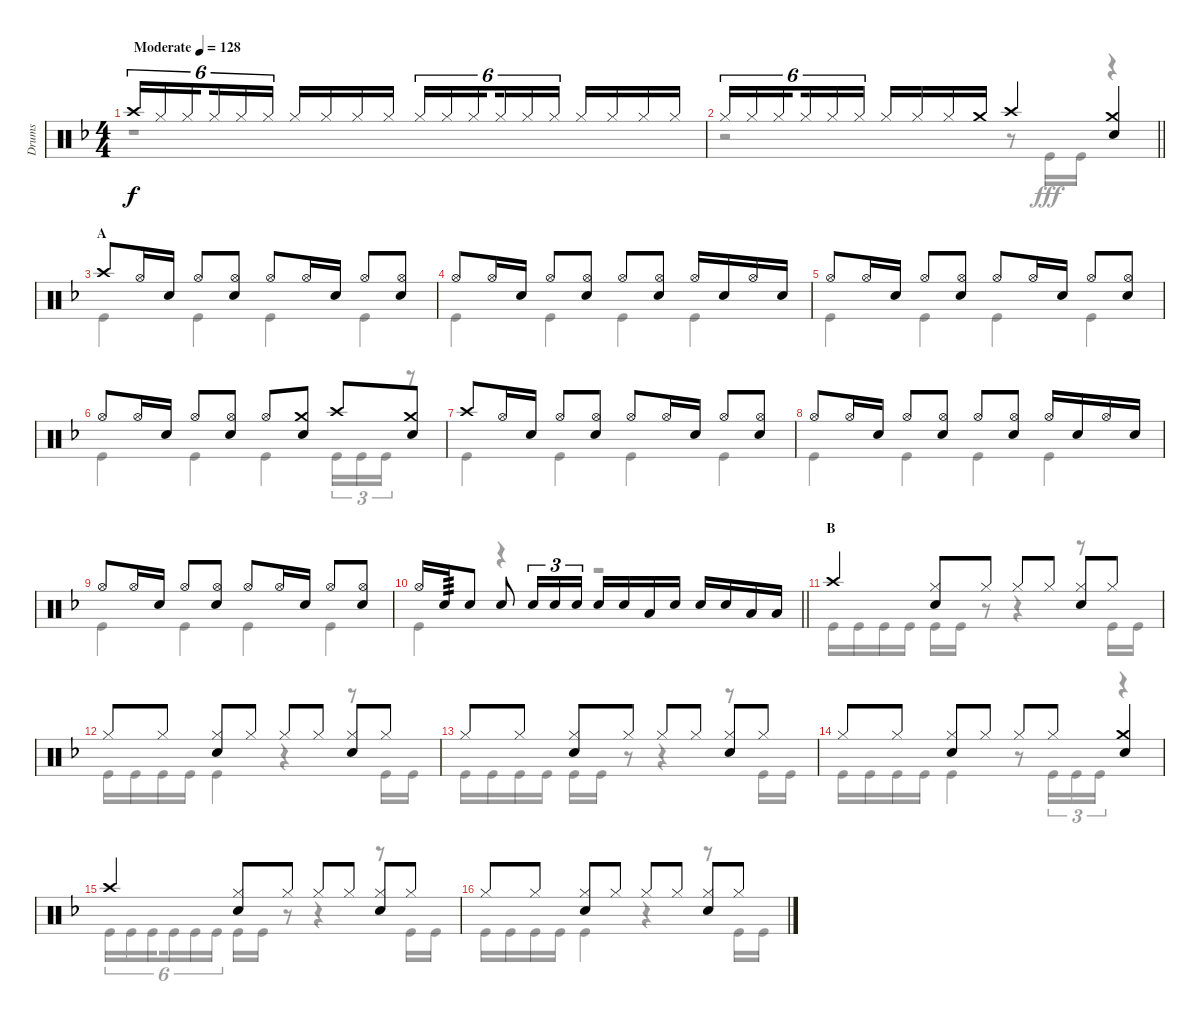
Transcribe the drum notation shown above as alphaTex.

\track ("Drums" "Drums") {instrument percussion}
\staff {score}
\articulation defaults
\voice
\ts (4 4)
\tempo (128 "Moderate")
\clef neutral
\ks f "Crash high (hit)".16{tu (6 4) dy f} "Hi-Hat (closed)".16{tu (6 4)} "Hi-Hat (closed)".16{tu (6 4) beam splitsecondary} "Hi-Hat (closed)".16{tu (6 4)} "Hi-Hat (closed)".16{tu (6 4)} "Hi-Hat (closed)".16{tu (6 4)} "Hi-Hat (closed)".16 "Hi-Hat (closed)".16 "Hi-Hat (closed)".16 "Hi-Hat (closed)".16 "Hi-Hat (closed)".16{tu (6 4)} "Hi-Hat (closed)".16{tu (6 4)} "Hi-Hat (closed)".16{tu (6 4) beam splitsecondary} "Hi-Hat (closed)".16{tu (6 4)} "Hi-Hat (closed)".16{tu (6 4)} "Hi-Hat (closed)".16{tu (6 4)} "Hi-Hat (closed)".16 "Hi-Hat (closed)".16 "Hi-Hat (closed)".16 "Hi-Hat (closed)".16
|
\barLineRight lightlight "Hi-Hat (closed)".16{tu (6 4)} "Hi-Hat (closed)".16{tu (6 4)} "Hi-Hat (closed)".16{tu (6 4) beam splitsecondary} "Hi-Hat (closed)".16{tu (6 4)} "Hi-Hat (closed)".16{tu (6 4)} "Hi-Hat (closed)".16{tu (6 4)} "Hi-Hat (closed)".16 "Hi-Hat (closed)".16 "Hi-Hat (closed)".16 "Crash medium (hit)".16 "Crash high (hit)".4
("Crash medium (hit)" "Snare (hit) 2").4 |
\section ("" "A")
"Crash high (hit)".8 "Hi-Hat (open)".16 "Snare (hit) 2".16 "Hi-Hat (open)".8 ("Hi-Hat (open)" "Snare (hit) 2").8 "Hi-Hat (open)".8 "Hi-Hat (open)".16 "Snare (hit) 2".16 "Hi-Hat (open)".8 ("Hi-Hat (open)" "Snare (hit) 2").8 |
"Hi-Hat (open)".8 "Hi-Hat (open)".16 "Snare (hit) 2".16 "Hi-Hat (open)".8 ("Hi-Hat (open)" "Snare (hit) 2").8 "Hi-Hat (open)".8 ("Hi-Hat (open)" "Snare (hit) 2").8 "Hi-Hat (open)".16 "Snare (hit) 2".16 "Hi-Hat (open)".16 "Snare (hit) 2".16 |
"Hi-Hat (open)".8 "Hi-Hat (open)".16 "Snare (hit) 2".16 "Hi-Hat (open)".8 ("Hi-Hat (open)" "Snare (hit) 2").8 "Hi-Hat (open)".8 "Hi-Hat (open)".16 "Snare (hit) 2".16 "Hi-Hat (open)".8 ("Hi-Hat (open)" "Snare (hit) 2").8 |
"Hi-Hat (open)".8 "Hi-Hat (open)".16 "Snare (hit) 2".16 "Hi-Hat (open)".8 ("Hi-Hat (open)" "Snare (hit) 2").8 "Hi-Hat (open)".8 ("Crash medium (hit)" "Snare (hit) 2").8 "Crash high (hit)".8 ("Crash medium (hit)" "Snare (hit) 2").8 |
"Crash high (hit)".8 "Hi-Hat (open)".16 "Snare (hit) 2".16 "Hi-Hat (open)".8 ("Hi-Hat (open)" "Snare (hit) 2").8 "Hi-Hat (open)".8 "Hi-Hat (open)".16 "Snare (hit) 2".16 "Hi-Hat (open)".8 ("Hi-Hat (open)" "Snare (hit) 2").8 |
"Hi-Hat (open)".8 "Hi-Hat (open)".16 "Snare (hit) 2".16 "Hi-Hat (open)".8 ("Hi-Hat (open)" "Snare (hit) 2").8 "Hi-Hat (open)".8 ("Hi-Hat (open)" "Snare (hit) 2").8 "Hi-Hat (open)".16 "Snare (hit) 2".16 "Hi-Hat (open)".16 "Snare (hit) 2".16 |
"Hi-Hat (open)".8 "Hi-Hat (open)".16 "Snare (hit) 2".16 "Hi-Hat (open)".8 ("Hi-Hat (open)" "Snare (hit) 2").8 "Hi-Hat (open)".8 "Hi-Hat (open)".16 "Snare (hit) 2".16 "Hi-Hat (open)".8 ("Hi-Hat (open)" "Snare (hit) 2").8 |
\barLineRight lightlight "Hi-Hat (open)".16 "Snare (hit) 2".16{tp 3} "Snare (hit) 2".8 "Snare (hit) 2".8 "Snare (hit) 2".16{tu (3 2)} "Snare (hit) 2".16{tu (3 2)} "Snare (hit) 2".16{tu (3 2)} "Snare (hit) 2".16 "Snare (hit) 2".16 "Low Tom (hit)".16 "Snare (hit) 2".16 "Snare (hit) 2".16 "Snare (hit) 2".16 "Low Tom (hit)".16 "Low Tom (hit)".16
|
\section ("" "B")
"Crash high (hit)".4 ("Hi-Hat (closed)" "Snare (hit) 2").8 "Hi-Hat (closed)".8 "Hi-Hat (closed)".8 "Hi-Hat (closed)".8 ("Hi-Hat (closed)" "Snare (hit) 2").8 "Hi-Hat (closed)".8 |
"Hi-Hat (closed)".8 "Hi-Hat (closed)".8 ("Hi-Hat (closed)" "Snare (hit) 2").8 "Hi-Hat (closed)".8 "Hi-Hat (closed)".8 "Hi-Hat (closed)".8 ("Hi-Hat (closed)" "Snare (hit) 2").8 "Hi-Hat (closed)".8 |
"Hi-Hat (closed)".8 "Hi-Hat (closed)".8 ("Hi-Hat (closed)" "Snare (hit) 2").8 "Hi-Hat (closed)".8 "Hi-Hat (closed)".8 "Hi-Hat (closed)".8 ("Hi-Hat (closed)" "Snare (hit) 2").8 "Hi-Hat (closed)".8 |
"Hi-Hat (closed)".8 "Hi-Hat (closed)".8 ("Hi-Hat (closed)" "Snare (hit) 2").8 "Hi-Hat (closed)".8 "Hi-Hat (closed)".8 "Hi-Hat (closed)".8 ("Crash medium (hit)" "Snare (hit) 2").4 |
"Crash high (hit)".4 ("Hi-Hat (closed)" "Snare (hit) 2").8 "Hi-Hat (closed)".8 "Hi-Hat (closed)".8 "Hi-Hat (closed)".8 ("Hi-Hat (closed)" "Snare (hit) 2").8 "Hi-Hat (closed)".8 |
"Hi-Hat (closed)".8 "Hi-Hat (closed)".8 ("Hi-Hat (closed)" "Snare (hit) 2").8 "Hi-Hat (closed)".8 "Hi-Hat (closed)".8 "Hi-Hat (closed)".8 ("Hi-Hat (closed)" "Snare (hit) 2").8 "Hi-Hat (closed)".8
\voice
\clef neutral
\ottava regular
\simile none
\ks f
r.1{dy fff} |
\barLineRight lightlight
r.2 r.8 "Kick (hit)".16 "Kick (hit)".16 r.4 |
"Kick (hit)".4 "Kick (hit)".4 "Kick (hit)".4 "Kick (hit)".4 |
"Kick (hit)".4 "Kick (hit)".4 "Kick (hit)".4 "Kick (hit)".4 |
"Kick (hit)".4 "Kick (hit)".4 "Kick (hit)".4 "Kick (hit)".4 |
"Kick (hit)".4 "Kick (hit)".4 "Kick (hit)".4 "Kick (hit)".16{tu (3 2)} "Kick (hit)".16{tu (3 2)} "Kick (hit)".16{tu (3 2)} r.8 |
"Kick (hit)".4 "Kick (hit)".4 "Kick (hit)".4 "Kick (hit)".4 |
"Kick (hit)".4 "Kick (hit)".4 "Kick (hit)".4 "Kick (hit)".4 |
"Kick (hit)".4 "Kick (hit)".4 "Kick (hit)".4 "Kick (hit)".4 |
\barLineRight lightlight "Kick (hit)".4
r.4 r.2 |
"Kick (hit)".16 "Kick (hit)".16 "Kick (hit)".16 "Kick (hit)".16 "Kick (hit)".16 "Kick (hit)".16 r.8 r.4 r.8 "Kick (hit)".16 "Kick (hit)".16 |
"Kick (hit)".16 "Kick (hit)".16 "Kick (hit)".16 "Kick (hit)".16 "Kick (hit)".4 r.4 r.8 "Kick (hit)".16 "Kick (hit)".16 |
"Kick (hit)".16 "Kick (hit)".16 "Kick (hit)".16 "Kick (hit)".16 "Kick (hit)".16 "Kick (hit)".16 r.8 r.4 r.8 "Kick (hit)".16 "Kick (hit)".16 |
"Kick (hit)".16 "Kick (hit)".16 "Kick (hit)".16 "Kick (hit)".16 "Kick (hit)".4 r.8 "Kick (hit)".16{tu (3 2)} "Kick (hit)".16{tu (3 2)} "Kick (hit)".16{tu (3 2)} r.4 |
"Kick (hit)".16{tu (6 4)} "Kick (hit)".16{tu (6 4)} "Kick (hit)".16{tu (6 4) beam splitsecondary} "Kick (hit)".16{tu (6 4)} "Kick (hit)".16{tu (6 4)} "Kick (hit)".16{tu (6 4)} "Kick (hit)".16 "Kick (hit)".16 r.8 r.4 r.8 "Kick (hit)".16 "Kick (hit)".16 |
"Kick (hit)".16 "Kick (hit)".16 "Kick (hit)".16 "Kick (hit)".16 "Kick (hit)".4 r.4 r.8 "Kick (hit)".16 "Kick (hit)".16
